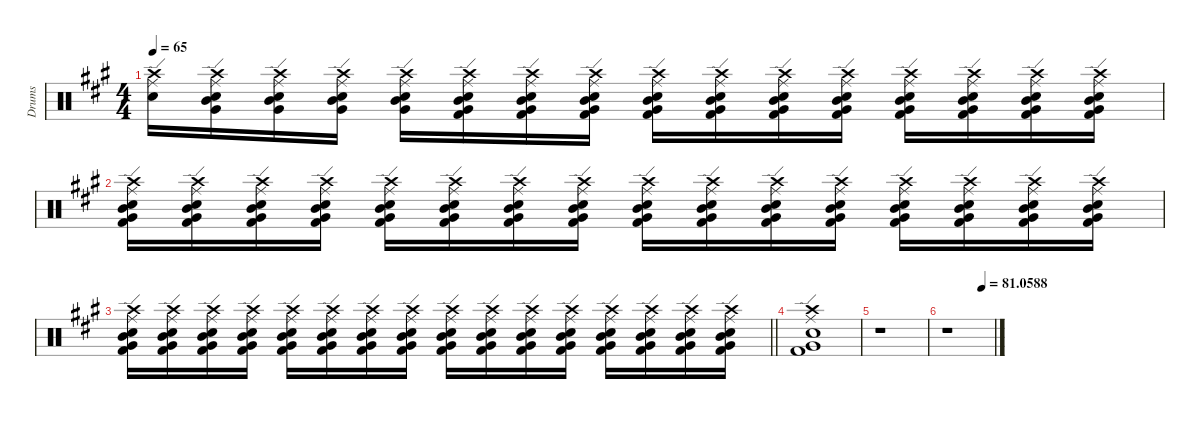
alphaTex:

\hideDynamics
\bracketExtendMode nobrackets
\otherSystemsTrackNameOrientation horizontal
\track ("Drumkit" "Drums") {instrument percussion}
\staff {score}
\articulation defaults
\ts (4 4)
\tempo 65
\clef neutral
\ks a
("Ride (edge)"{acc forcenatural} "Crash high (hit)"{acc forcenatural} "Snare (hit) 2"{acc forcenatural}).16{dy f beam Down} ("Very Low Tom (hit)"{acc forcenatural} "Ride (edge)"{acc forcenatural} "Crash high (hit)"{acc forcenatural} "Mid Tom (hit)"{acc forcenatural} "Snare (hit) 2"{acc forcenatural}).16{beam Down} ("Very Low Tom (hit)"{acc forcenatural} "Ride (edge)"{acc forcenatural} "Crash high (hit)"{acc forcenatural} "Mid Tom (hit)"{acc forcenatural} "Snare (hit) 2"{acc forcenatural}).16{beam Down} ("Very Low Tom (hit)"{acc forcenatural} "Ride (edge)"{acc forcenatural} "Crash high (hit)"{acc forcenatural} "Mid Tom (hit)"{acc forcenatural} "Snare (hit) 2"{acc forcenatural}).16{beam Down} ("Very Low Tom (hit)"{acc forcenatural} "Ride (edge)"{acc forcenatural} "Crash high (hit)"{acc forcenatural} "Mid Tom (hit)"{acc forcenatural} "Snare (hit) 2"{acc forcenatural}).16{beam Down} ("Very Low Tom (hit)"{acc forcenatural} "Ride (edge)"{acc forcenatural} "Crash high (hit)"{acc forcenatural} "Mid Tom (hit)"{acc forcenatural} "Snare (hit) 2"{acc forcenatural} "Kick (hit) 2"{acc forcenatural}).16{beam Down} ("Very Low Tom (hit)"{acc forcenatural} "Ride (edge)"{acc forcenatural} "Crash high (hit)"{acc forcenatural} "Mid Tom (hit)"{acc forcenatural} "Snare (hit) 2"{acc forcenatural} "Kick (hit) 2"{acc forcenatural}).16{beam Down} ("Very Low Tom (hit)"{acc forcenatural} "Ride (edge)"{acc forcenatural} "Crash high (hit)"{acc forcenatural} "Mid Tom (hit)"{acc forcenatural} "Snare (hit) 2"{acc forcenatural} "Kick (hit) 2"{acc forcenatural}).16{beam Down} ("Very Low Tom (hit)"{acc forcenatural} "Ride (edge)"{acc forcenatural} "Crash high (hit)"{acc forcenatural} "Mid Tom (hit)"{acc forcenatural} "Snare (hit) 2"{acc forcenatural} "Kick (hit) 2"{acc forcenatural}).16{beam Down} ("Very Low Tom (hit)"{acc forcenatural} "Ride (edge)"{acc forcenatural} "Crash high (hit)"{acc forcenatural} "Mid Tom (hit)"{acc forcenatural} "Snare (hit) 2"{acc forcenatural} "Kick (hit) 2"{acc forcenatural}).16{beam Down} ("Very Low Tom (hit)"{acc forcenatural} "Ride (edge)"{acc forcenatural} "Crash high (hit)"{acc forcenatural} "Mid Tom (hit)"{acc forcenatural} "Snare (hit) 2"{acc forcenatural} "Kick (hit) 2"{acc forcenatural}).16{beam Down} ("Very Low Tom (hit)"{acc forcenatural} "Ride (edge)"{acc forcenatural} "Crash high (hit)"{acc forcenatural} "Mid Tom (hit)"{acc forcenatural} "Snare (hit) 2"{acc forcenatural} "Kick (hit) 2"{acc forcenatural}).16{beam Down} ("Very Low Tom (hit)"{acc forcenatural} "Ride (edge)"{acc forcenatural} "Crash high (hit)"{acc forcenatural} "Mid Tom (hit)"{acc forcenatural} "Snare (hit) 2"{acc forcenatural} "Kick (hit) 2"{acc forcenatural}).16{beam Down} ("Very Low Tom (hit)"{acc forcenatural} "Ride (edge)"{acc forcenatural} "Crash high (hit)"{acc forcenatural} "Mid Tom (hit)"{acc forcenatural} "Snare (hit) 2"{acc forcenatural} "Kick (hit) 2"{acc forcenatural}).16{beam Down} ("Very Low Tom (hit)"{acc forcenatural} "Ride (edge)"{acc forcenatural} "Crash high (hit)"{acc forcenatural} "Mid Tom (hit)"{acc forcenatural} "Snare (hit) 2"{acc forcenatural} "Kick (hit) 2"{acc forcenatural}).16{beam Down} ("Very Low Tom (hit)"{acc forcenatural} "Ride (edge)"{acc forcenatural} "Crash high (hit)"{acc forcenatural} "Mid Tom (hit)"{acc forcenatural} "Snare (hit) 2"{acc forcenatural} "Kick (hit) 2"{acc forcenatural}).16{beam Down} |
("Very Low Tom (hit)"{acc forcenatural} "Ride (edge)"{acc forcenatural} "Crash high (hit)"{acc forcenatural} "Mid Tom (hit)"{acc forcenatural} "Snare (hit) 2"{acc forcenatural} "Kick (hit) 2"{acc forcenatural}).16{beam Down} ("Very Low Tom (hit)"{acc forcenatural} "Ride (edge)"{acc forcenatural} "Crash high (hit)"{acc forcenatural} "Mid Tom (hit)"{acc forcenatural} "Snare (hit) 2"{acc forcenatural} "Kick (hit) 2"{acc forcenatural}).16{beam Down} ("Very Low Tom (hit)"{acc forcenatural} "Ride (edge)"{acc forcenatural} "Crash high (hit)"{acc forcenatural} "Mid Tom (hit)"{acc forcenatural} "Snare (hit) 2"{acc forcenatural} "Kick (hit) 2"{acc forcenatural}).16{beam Down} ("Very Low Tom (hit)"{acc forcenatural} "Ride (edge)"{acc forcenatural} "Crash high (hit)"{acc forcenatural} "Mid Tom (hit)"{acc forcenatural} "Snare (hit) 2"{acc forcenatural} "Kick (hit) 2"{acc forcenatural}).16{beam Down} ("Very Low Tom (hit)"{acc forcenatural} "Ride (edge)"{acc forcenatural} "Crash high (hit)"{acc forcenatural} "Mid Tom (hit)"{acc forcenatural} "Snare (hit) 2"{acc forcenatural} "Kick (hit) 2"{acc forcenatural}).16{beam Down} ("Very Low Tom (hit)"{acc forcenatural} "Ride (edge)"{acc forcenatural} "Crash high (hit)"{acc forcenatural} "Mid Tom (hit)"{acc forcenatural} "Snare (hit) 2"{acc forcenatural} "Kick (hit) 2"{acc forcenatural}).16{beam Down} ("Very Low Tom (hit)"{acc forcenatural} "Ride (edge)"{acc forcenatural} "Crash high (hit)"{acc forcenatural} "Mid Tom (hit)"{acc forcenatural} "Snare (hit) 2"{acc forcenatural} "Kick (hit) 2"{acc forcenatural}).16{beam Down} ("Very Low Tom (hit)"{acc forcenatural} "Ride (edge)"{acc forcenatural} "Crash high (hit)"{acc forcenatural} "Mid Tom (hit)"{acc forcenatural} "Snare (hit) 2"{acc forcenatural} "Kick (hit) 2"{acc forcenatural}).16{beam Down} ("Very Low Tom (hit)"{acc forcenatural} "Ride (edge)"{acc forcenatural} "Crash high (hit)"{acc forcenatural} "Mid Tom (hit)"{acc forcenatural} "Snare (hit) 2"{acc forcenatural} "Kick (hit) 2"{acc forcenatural}).16{beam Down} ("Very Low Tom (hit)"{acc forcenatural} "Ride (edge)"{acc forcenatural} "Crash high (hit)"{acc forcenatural} "Mid Tom (hit)"{acc forcenatural} "Snare (hit) 2"{acc forcenatural} "Kick (hit) 2"{acc forcenatural}).16{beam Down} ("Very Low Tom (hit)"{acc forcenatural} "Ride (edge)"{acc forcenatural} "Crash high (hit)"{acc forcenatural} "Mid Tom (hit)"{acc forcenatural} "Snare (hit) 2"{acc forcenatural} "Kick (hit) 2"{acc forcenatural}).16{beam Down} ("Very Low Tom (hit)"{acc forcenatural} "Ride (edge)"{acc forcenatural} "Crash high (hit)"{acc forcenatural} "Mid Tom (hit)"{acc forcenatural} "Snare (hit) 2"{acc forcenatural} "Kick (hit) 2"{acc forcenatural}).16{beam Down} ("Very Low Tom (hit)"{acc forcenatural} "Ride (edge)"{acc forcenatural} "Crash high (hit)"{acc forcenatural} "Mid Tom (hit)"{acc forcenatural} "Snare (hit) 2"{acc forcenatural} "Kick (hit) 2"{acc forcenatural}).16{beam Down} ("Very Low Tom (hit)"{acc forcenatural} "Ride (edge)"{acc forcenatural} "Crash high (hit)"{acc forcenatural} "Mid Tom (hit)"{acc forcenatural} "Snare (hit) 2"{acc forcenatural} "Kick (hit) 2"{acc forcenatural}).16{beam Down} ("Very Low Tom (hit)"{acc forcenatural} "Ride (edge)"{acc forcenatural} "Crash high (hit)"{acc forcenatural} "Mid Tom (hit)"{acc forcenatural} "Snare (hit) 2"{acc forcenatural} "Kick (hit) 2"{acc forcenatural}).16{beam Down} ("Very Low Tom (hit)"{acc forcenatural} "Ride (edge)"{acc forcenatural} "Crash high (hit)"{acc forcenatural} "Mid Tom (hit)"{acc forcenatural} "Snare (hit) 2"{acc forcenatural} "Kick (hit) 2"{acc forcenatural}).16{beam Down} |
\barLineRight lightlight
("Very Low Tom (hit)"{acc forcenatural} "Ride (edge)"{acc forcenatural} "Crash high (hit)"{acc forcenatural} "Mid Tom (hit)"{acc forcenatural} "Snare (hit) 2"{acc forcenatural} "Kick (hit) 2"{acc forcenatural}).16{beam Down} ("Very Low Tom (hit)"{acc forcenatural} "Ride (edge)"{acc forcenatural} "Crash high (hit)"{acc forcenatural} "Mid Tom (hit)"{acc forcenatural} "Snare (hit) 2"{acc forcenatural} "Kick (hit) 2"{acc forcenatural}).16{beam Down} ("Very Low Tom (hit)"{acc forcenatural} "Ride (edge)"{acc forcenatural} "Crash high (hit)"{acc forcenatural} "Mid Tom (hit)"{acc forcenatural} "Snare (hit) 2"{acc forcenatural} "Kick (hit) 2"{acc forcenatural}).16{beam Down} ("Very Low Tom (hit)"{acc forcenatural} "Ride (edge)"{acc forcenatural} "Crash high (hit)"{acc forcenatural} "Mid Tom (hit)"{acc forcenatural} "Snare (hit) 2"{acc forcenatural} "Kick (hit) 2"{acc forcenatural}).16{beam Down} ("Very Low Tom (hit)"{acc forcenatural} "Ride (edge)"{acc forcenatural} "Crash high (hit)"{acc forcenatural} "Mid Tom (hit)"{acc forcenatural} "Snare (hit) 2"{acc forcenatural} "Kick (hit) 2"{acc forcenatural}).16{beam Down} ("Very Low Tom (hit)"{acc forcenatural} "Ride (edge)"{acc forcenatural} "Crash high (hit)"{acc forcenatural} "Mid Tom (hit)"{acc forcenatural} "Snare (hit) 2"{acc forcenatural} "Kick (hit) 2"{acc forcenatural}).16{beam Down} ("Very Low Tom (hit)"{acc forcenatural} "Ride (edge)"{acc forcenatural} "Crash high (hit)"{acc forcenatural} "Mid Tom (hit)"{acc forcenatural} "Snare (hit) 2"{acc forcenatural} "Kick (hit) 2"{acc forcenatural}).16{beam Down} ("Very Low Tom (hit)"{acc forcenatural} "Ride (edge)"{acc forcenatural} "Crash high (hit)"{acc forcenatural} "Mid Tom (hit)"{acc forcenatural} "Snare (hit) 2"{acc forcenatural} "Kick (hit) 2"{acc forcenatural}).16{beam Down} ("Very Low Tom (hit)"{acc forcenatural} "Ride (edge)"{acc forcenatural} "Crash high (hit)"{acc forcenatural} "Mid Tom (hit)"{acc forcenatural} "Snare (hit) 2"{acc forcenatural} "Kick (hit) 2"{acc forcenatural}).16{beam Down} ("Very Low Tom (hit)"{acc forcenatural} "Ride (edge)"{acc forcenatural} "Crash high (hit)"{acc forcenatural} "Mid Tom (hit)"{acc forcenatural} "Snare (hit) 2"{acc forcenatural} "Kick (hit) 2"{acc forcenatural}).16{beam Down} ("Very Low Tom (hit)"{acc forcenatural} "Ride (edge)"{acc forcenatural} "Crash high (hit)"{acc forcenatural} "Mid Tom (hit)"{acc forcenatural} "Snare (hit) 2"{acc forcenatural} "Kick (hit) 2"{acc forcenatural}).16{beam Down} ("Very Low Tom (hit)"{acc forcenatural} "Ride (edge)"{acc forcenatural} "Crash high (hit)"{acc forcenatural} "Mid Tom (hit)"{acc forcenatural} "Snare (hit) 2"{acc forcenatural} "Kick (hit) 2"{acc forcenatural}).16{beam Down} ("Very Low Tom (hit)"{acc forcenatural} "Ride (edge)"{acc forcenatural} "Crash high (hit)"{acc forcenatural} "Mid Tom (hit)"{acc forcenatural} "Snare (hit) 2"{acc forcenatural} "Kick (hit) 2"{acc forcenatural}).16{beam Down} ("Very Low Tom (hit)"{acc forcenatural} "Ride (edge)"{acc forcenatural} "Crash high (hit)"{acc forcenatural} "Mid Tom (hit)"{acc forcenatural} "Snare (hit) 2"{acc forcenatural} "Kick (hit) 2"{acc forcenatural}).16{beam Down} ("Very Low Tom (hit)"{acc forcenatural} "Ride (edge)"{acc forcenatural} "Crash high (hit)"{acc forcenatural} "Mid Tom (hit)"{acc forcenatural} "Snare (hit) 2"{acc forcenatural} "Kick (hit) 2"{acc forcenatural}).16{beam Down} ("Very Low Tom (hit)"{acc forcenatural} "Ride (edge)"{acc forcenatural} "Crash high (hit)"{acc forcenatural} "Mid Tom (hit)"{acc forcenatural} "Snare (hit) 2"{acc forcenatural} "Kick (hit) 2"{acc forcenatural}).16{beam Down} |
("Very Low Tom (hit)"{acc forcenatural} "Ride (edge)"{acc forcenatural} "Crash high (hit)"{acc forcenatural} "Snare (hit) 2"{acc forcenatural} "Kick (hit) 2"{acc forcenatural}).1{beam Down} |
r.1{beam Down} |
\tempo (81.0588 0.75)
r.1{beam Down}
